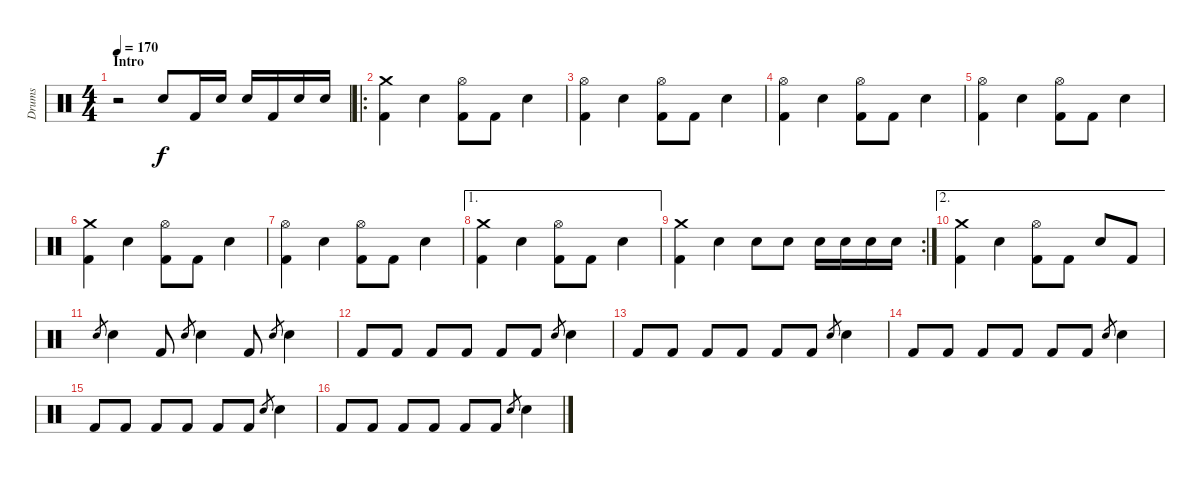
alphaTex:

\track ("Drums" "Drums") {instrument percussion}
\staff {score}
\articulation defaults
\ts (4 4)
\section ("" "Intro")
\tempo 170
\clef neutral
\ks c
r.2{dy f} "Snare (hit) 2".8 "Kick (hit) 2".16 "Snare (hit) 2".16 "Snare (hit) 2".16 "Kick (hit) 2".16 "Snare (hit) 2".16 "Snare (hit) 2".16 |
\ro
("Crash medium (hit)" "Kick (hit) 2").4 "Snare (hit) 2".4 ("Hi-Hat (open)" "Kick (hit) 2").8 "Kick (hit) 2".8 "Snare (hit) 2".4 |
("Hi-Hat (open)" "Kick (hit) 2").4 "Snare (hit) 2".4 ("Hi-Hat (open)" "Kick (hit) 2").8 "Kick (hit) 2".8 "Snare (hit) 2".4 |
("Hi-Hat (open)" "Kick (hit) 2").4 "Snare (hit) 2".4 ("Hi-Hat (open)" "Kick (hit) 2").8 "Kick (hit) 2".8 "Snare (hit) 2".4 |
("Hi-Hat (open)" "Kick (hit) 2").4 "Snare (hit) 2".4 ("Hi-Hat (open)" "Kick (hit) 2").8 "Kick (hit) 2".8 "Snare (hit) 2".4 |
("Crash medium (hit)" "Kick (hit) 2").4 "Snare (hit) 2".4 ("Hi-Hat (open)" "Kick (hit) 2").8 "Kick (hit) 2".8 "Snare (hit) 2".4 |
("Hi-Hat (open)" "Kick (hit) 2").4 "Snare (hit) 2".4 ("Hi-Hat (open)" "Kick (hit) 2").8 "Kick (hit) 2".8 "Snare (hit) 2".4 |
\ae 1
("Crash medium (hit)" "Kick (hit) 2").4 "Snare (hit) 2".4 ("Hi-Hat (open)" "Kick (hit) 2").8 "Kick (hit) 2".8 "Snare (hit) 2".4 |
\rc 2
("Crash medium (hit)" "Kick (hit) 2").4 "Snare (hit) 2".4 "Snare (hit) 2".8 "Snare (hit) 2".8 "Snare (hit) 2".16 "Snare (hit) 2".16 "Snare (hit) 2".16 "Snare (hit) 2".16 |
\ae 2
("Crash medium (hit)" "Kick (hit) 2").4 "Snare (hit) 2".4 ("Hi-Hat (open)" "Kick (hit) 2").8 "Kick (hit) 2".8 "Snare (hit) 2".8 "Kick (hit) 2".8 |
"Snare (hit) 2".8{gr} "Snare (hit) 2".4 "Kick (hit) 2".8 "Snare (hit) 2".8{gr} "Snare (hit) 2".4 "Kick (hit) 2".8 "Snare (hit) 2".8{gr} "Snare (hit) 2".4 |
"Kick (hit) 2".8 "Kick (hit) 2".8 "Kick (hit) 2".8 "Kick (hit) 2".8 "Kick (hit) 2".8 "Kick (hit) 2".8 "Snare (hit) 2".8{gr} "Snare (hit) 2".4 |
"Kick (hit) 2".8 "Kick (hit) 2".8 "Kick (hit) 2".8 "Kick (hit) 2".8 "Kick (hit) 2".8 "Kick (hit) 2".8 "Snare (hit) 2".8{gr} "Snare (hit) 2".4 |
"Kick (hit) 2".8 "Kick (hit) 2".8 "Kick (hit) 2".8 "Kick (hit) 2".8 "Kick (hit) 2".8 "Kick (hit) 2".8 "Snare (hit) 2".8{gr} "Snare (hit) 2".4 |
"Kick (hit) 2".8 "Kick (hit) 2".8 "Kick (hit) 2".8 "Kick (hit) 2".8 "Kick (hit) 2".8 "Kick (hit) 2".8 "Snare (hit) 2".8{gr} "Snare (hit) 2".4 |
"Kick (hit) 2".8 "Kick (hit) 2".8 "Kick (hit) 2".8 "Kick (hit) 2".8 "Kick (hit) 2".8 "Kick (hit) 2".8 "Snare (hit) 2".8{gr} "Snare (hit) 2".4
